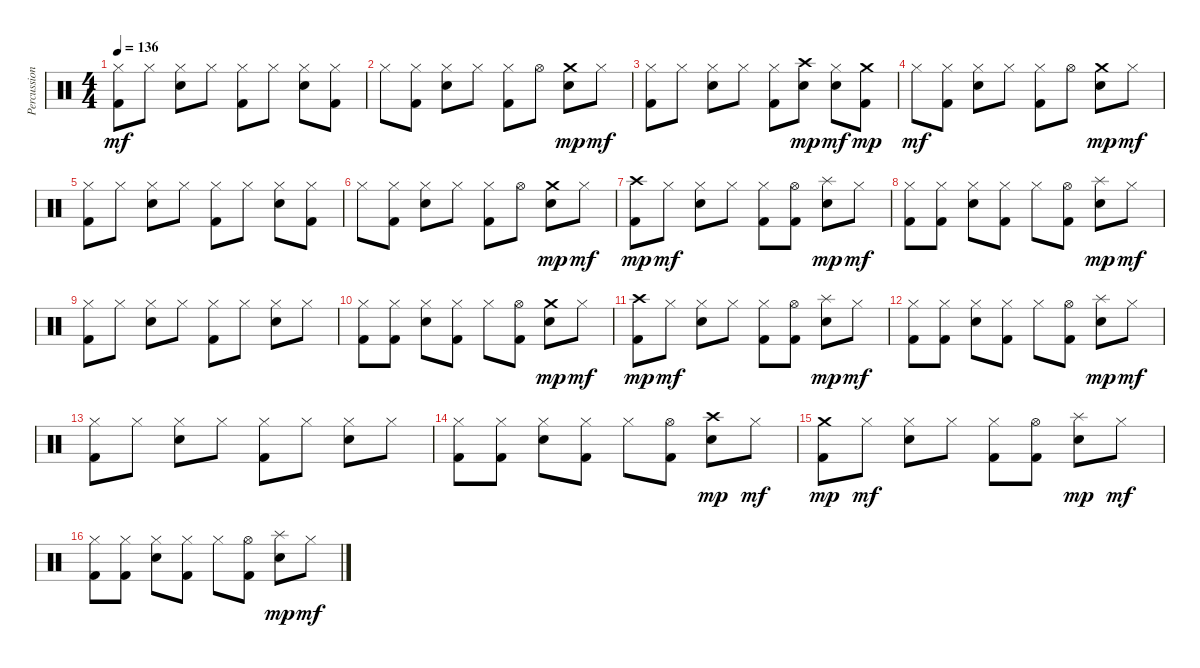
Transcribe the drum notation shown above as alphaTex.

\track ("Percussions" "Percussion") {instrument percussion}
\staff {score}
\articulation defaults
\ts (4 4)
\tempo 136
\clef neutral
\ks c
("Hi-Hat (closed)" "Kick (hit) 2").8{dy mf} "Hi-Hat (closed)".8 ("Hi-Hat (closed)" "Electric Snare (hit)").8 "Hi-Hat (closed)".8 ("Hi-Hat (closed)" "Kick (hit) 2").8 "Hi-Hat (closed)".8 ("Hi-Hat (closed)" "Electric Snare (hit)").8 ("Hi-Hat (closed)" "Kick (hit) 2").8 |
"Hi-Hat (closed)".8 ("Hi-Hat (closed)" "Kick (hit) 2").8 ("Hi-Hat (closed)" "Electric Snare (hit)").8 "Hi-Hat (closed)".8 ("Hi-Hat (closed)" "Kick (hit) 2").8 "Hi-Hat (open)".8 ("Crash medium (hit)" "Electric Snare (hit)").8{dy mp} "Hi-Hat (closed)".8{dy mf} |
("Hi-Hat (closed)" "Kick (hit) 2").8 "Hi-Hat (closed)".8 ("Hi-Hat (closed)" "Electric Snare (hit)").8 "Hi-Hat (closed)".8 ("Hi-Hat (closed)" "Kick (hit) 2").8 ("Crash high (hit)" "Electric Snare (hit)").8{dy mp} ("Hi-Hat (closed)" "Electric Snare (hit)").8{dy mf} ("Crash medium (hit)" "Kick (hit) 2").8{dy mp} |
"Hi-Hat (closed)".8{dy mf} ("Hi-Hat (closed)" "Kick (hit) 2").8 ("Hi-Hat (closed)" "Electric Snare (hit)").8 "Hi-Hat (closed)".8 ("Hi-Hat (closed)" "Kick (hit) 2").8 "Hi-Hat (open)".8 ("Crash medium (hit)" "Electric Snare (hit)").8{dy mp} "Hi-Hat (closed)".8{dy mf} |
("Hi-Hat (closed)" "Kick (hit) 2").8 "Hi-Hat (closed)".8 ("Hi-Hat (closed)" "Electric Snare (hit)").8 "Hi-Hat (closed)".8 ("Hi-Hat (closed)" "Kick (hit) 2").8 "Hi-Hat (closed)".8 ("Hi-Hat (closed)" "Electric Snare (hit)").8 ("Hi-Hat (closed)" "Kick (hit) 2").8 |
"Hi-Hat (closed)".8 ("Hi-Hat (closed)" "Kick (hit) 2").8 ("Hi-Hat (closed)" "Electric Snare (hit)").8 "Hi-Hat (closed)".8 ("Hi-Hat (closed)" "Kick (hit) 2").8 "Hi-Hat (open)".8 ("Crash medium (hit)" "Electric Snare (hit)").8{dy mp} "Hi-Hat (closed)".8{dy mf} |
("Crash high (hit)" "Kick (hit) 2").8{dy mp} "Hi-Hat (closed)".8{dy mf} ("Hi-Hat (closed)" "Electric Snare (hit)").8 "Hi-Hat (closed)".8 ("Hi-Hat (closed)" "Kick (hit) 2").8 ("Hi-Hat (open)" "Kick (hit) 2").8 ("Splash (hit)" "Electric Snare (hit)").8{dy mp} "Hi-Hat (closed)".8{dy mf} |
("Hi-Hat (closed)" "Kick (hit) 2").8 ("Hi-Hat (closed)" "Kick (hit) 2").8 ("Hi-Hat (closed)" "Electric Snare (hit)").8 ("Hi-Hat (closed)" "Kick (hit) 2").8 "Hi-Hat (closed)".8 ("Hi-Hat (open)" "Kick (hit) 2").8 ("Splash (hit)" "Electric Snare (hit)").8{dy mp} "Hi-Hat (closed)".8{dy mf} |
("Hi-Hat (closed)" "Kick (hit) 2").8 "Hi-Hat (closed)".8 ("Hi-Hat (closed)" "Electric Snare (hit)").8 "Hi-Hat (closed)".8 ("Hi-Hat (closed)" "Kick (hit) 2").8 "Hi-Hat (closed)".8 ("Hi-Hat (closed)" "Electric Snare (hit)").8 "Hi-Hat (closed)".8 |
("Hi-Hat (closed)" "Kick (hit) 2").8 ("Hi-Hat (closed)" "Kick (hit) 2").8 ("Hi-Hat (closed)" "Electric Snare (hit)").8 ("Hi-Hat (closed)" "Kick (hit) 2").8 "Hi-Hat (closed)".8 ("Hi-Hat (open)" "Kick (hit) 2").8 ("Crash medium (hit)" "Electric Snare (hit)").8{dy mp} "Hi-Hat (closed)".8{dy mf} |
("Crash high (hit)" "Kick (hit) 2").8{dy mp} "Hi-Hat (closed)".8{dy mf} ("Hi-Hat (closed)" "Electric Snare (hit)").8 "Hi-Hat (closed)".8 ("Hi-Hat (closed)" "Kick (hit) 2").8 ("Hi-Hat (open)" "Kick (hit) 2").8 ("Splash (hit)" "Electric Snare (hit)").8{dy mp} "Hi-Hat (closed)".8{dy mf} |
("Hi-Hat (closed)" "Kick (hit) 2").8 ("Hi-Hat (closed)" "Kick (hit) 2").8 ("Hi-Hat (closed)" "Electric Snare (hit)").8 ("Hi-Hat (closed)" "Kick (hit) 2").8 "Hi-Hat (closed)".8 ("Hi-Hat (open)" "Kick (hit) 2").8 ("Splash (hit)" "Electric Snare (hit)").8{dy mp} "Hi-Hat (closed)".8{dy mf} |
("Hi-Hat (closed)" "Kick (hit) 2").8 "Hi-Hat (closed)".8 ("Hi-Hat (closed)" "Electric Snare (hit)").8 "Hi-Hat (closed)".8 ("Hi-Hat (closed)" "Kick (hit) 2").8 "Hi-Hat (closed)".8 ("Hi-Hat (closed)" "Electric Snare (hit)").8 "Hi-Hat (closed)".8 |
("Hi-Hat (closed)" "Kick (hit) 2").8 ("Hi-Hat (closed)" "Kick (hit) 2").8 ("Hi-Hat (closed)" "Electric Snare (hit)").8 ("Hi-Hat (closed)" "Kick (hit) 2").8 "Hi-Hat (closed)".8 ("Hi-Hat (open)" "Kick (hit) 2").8 ("Crash high (hit)" "Electric Snare (hit)").8{dy mp} "Hi-Hat (closed)".8{dy mf} |
("Crash medium (hit)" "Kick (hit) 2").8{dy mp} "Hi-Hat (closed)".8{dy mf} ("Hi-Hat (closed)" "Electric Snare (hit)").8 "Hi-Hat (closed)".8 ("Hi-Hat (closed)" "Kick (hit) 2").8 ("Hi-Hat (open)" "Kick (hit) 2").8 ("Splash (hit)" "Electric Snare (hit)").8{dy mp} "Hi-Hat (closed)".8{dy mf} |
("Hi-Hat (closed)" "Kick (hit) 2").8 ("Hi-Hat (closed)" "Kick (hit) 2").8 ("Hi-Hat (closed)" "Electric Snare (hit)").8 ("Hi-Hat (closed)" "Kick (hit) 2").8 "Hi-Hat (closed)".8 ("Hi-Hat (open)" "Kick (hit) 2").8 ("Splash (hit)" "Electric Snare (hit)").8{dy mp} "Hi-Hat (closed)".8{dy mf}
